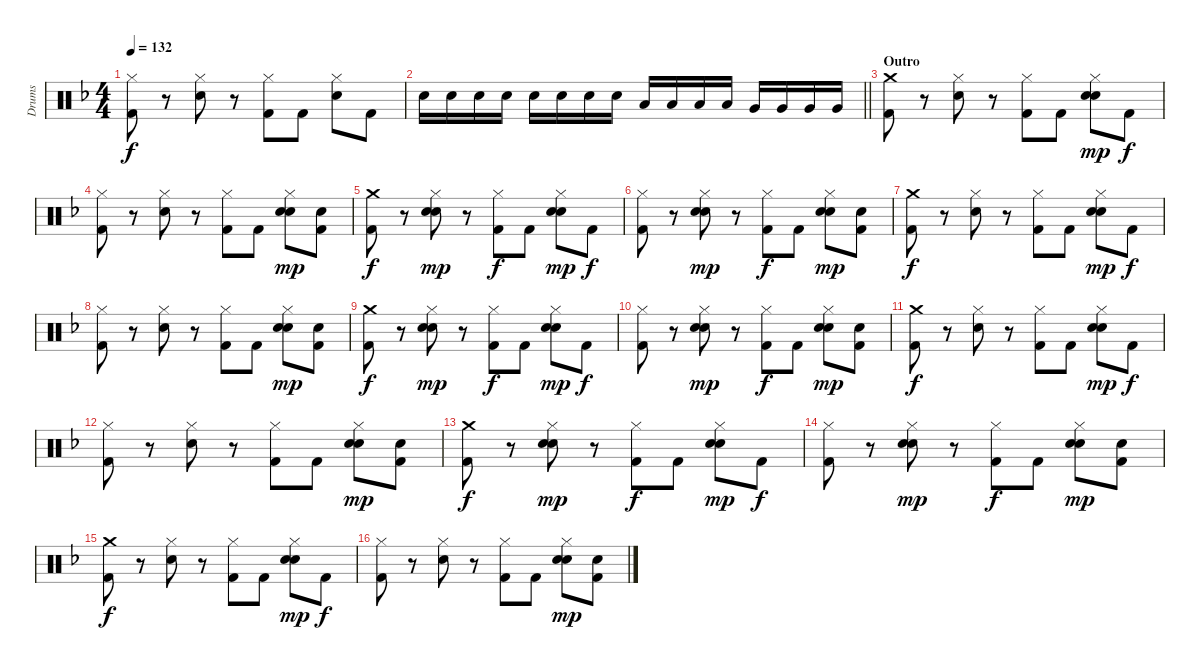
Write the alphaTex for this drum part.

\track ("Drums" "Drums") {instrument percussion}
\staff {score}
\articulation defaults
\ts (4 4)
\tempo 132
\clef neutral
\ks f
("Hi-Hat (closed)" "Kick (hit) 2").8{dy f} r.8 ("Hi-Hat (closed)" "Snare (hit) 2").8 r.8 ("Hi-Hat (closed)" "Kick (hit) 2").8 "Kick (hit) 2".8 ("Hi-Hat (closed)" "Snare (hit) 2").8 "Kick (hit) 2".8 |
\barLineRight lightlight "Snare (hit) 2".16 "Snare (hit) 2".16 "Snare (hit) 2".16 "Snare (hit) 2".16 "Snare (hit) 2".16 "Snare (hit) 2".16 "Snare (hit) 2".16 "Snare (hit) 2".16 "Low Tom (hit)".16 "Low Tom (hit)".16 "Low Tom (hit)".16 "Low Tom (hit)".16 "Very Low Tom (hit)".16 "Very Low Tom (hit)".16 "Very Low Tom (hit)".16 "Very Low Tom (hit)".16
|
\section ("" "Outro")
("Crash medium (hit)" "Kick (hit) 2").8 r.8 ("Hi-Hat (closed)" "Snare (hit) 2").8 r.8 ("Hi-Hat (closed)" "Kick (hit) 2").8 "Kick (hit) 2".8 ("Hi-Hat (closed)" "Hand Clap (hit)" "Snare (hit) 2").8{dy mp} "Kick (hit) 2".8{dy f} |
("Hi-Hat (closed)" "Kick (hit) 2").8 r.8 ("Hi-Hat (closed)" "Snare (hit) 2").8 r.8 ("Hi-Hat (closed)" "Kick (hit) 2").8 "Kick (hit) 2".8 ("Hi-Hat (closed)" "Hand Clap (hit)" "Snare (hit) 2").8{dy mp} ("Hand Clap (hit)" "Kick (hit) 2").8 |
("Crash medium (hit)" "Kick (hit) 2").8{dy f} r.8 ("Hi-Hat (closed)" "Hand Clap (hit)" "Snare (hit) 2").8{dy mp} r.8 ("Hi-Hat (closed)" "Kick (hit) 2").8{dy f} "Kick (hit) 2".8 ("Hi-Hat (closed)" "Hand Clap (hit)" "Snare (hit) 2").8{dy mp} "Kick (hit) 2".8{dy f} |
("Hi-Hat (closed)" "Kick (hit) 2").8 r.8 ("Hi-Hat (closed)" "Hand Clap (hit)" "Snare (hit) 2").8{dy mp} r.8 ("Hi-Hat (closed)" "Kick (hit) 2").8{dy f} "Kick (hit) 2".8 ("Hi-Hat (closed)" "Hand Clap (hit)" "Snare (hit) 2").8{dy mp} ("Hand Clap (hit)" "Kick (hit) 2").8 |
("Crash medium (hit)" "Kick (hit) 2").8{dy f} r.8 ("Hi-Hat (closed)" "Snare (hit) 2").8 r.8 ("Hi-Hat (closed)" "Kick (hit) 2").8 "Kick (hit) 2".8 ("Hi-Hat (closed)" "Hand Clap (hit)" "Snare (hit) 2").8{dy mp} "Kick (hit) 2".8{dy f} |
("Hi-Hat (closed)" "Kick (hit) 2").8 r.8 ("Hi-Hat (closed)" "Snare (hit) 2").8 r.8 ("Hi-Hat (closed)" "Kick (hit) 2").8 "Kick (hit) 2".8 ("Hi-Hat (closed)" "Hand Clap (hit)" "Snare (hit) 2").8{dy mp} ("Hand Clap (hit)" "Kick (hit) 2").8 |
("Crash medium (hit)" "Kick (hit) 2").8{dy f} r.8 ("Hi-Hat (closed)" "Hand Clap (hit)" "Snare (hit) 2").8{dy mp} r.8 ("Hi-Hat (closed)" "Kick (hit) 2").8{dy f} "Kick (hit) 2".8 ("Hi-Hat (closed)" "Hand Clap (hit)" "Snare (hit) 2").8{dy mp} "Kick (hit) 2".8{dy f} |
("Hi-Hat (closed)" "Kick (hit) 2").8 r.8 ("Hi-Hat (closed)" "Hand Clap (hit)" "Snare (hit) 2").8{dy mp} r.8 ("Hi-Hat (closed)" "Kick (hit) 2").8{dy f} "Kick (hit) 2".8 ("Hi-Hat (closed)" "Hand Clap (hit)" "Snare (hit) 2").8{dy mp} ("Hand Clap (hit)" "Kick (hit) 2").8 |
("Crash medium (hit)" "Kick (hit) 2").8{dy f} r.8 ("Hi-Hat (closed)" "Snare (hit) 2").8 r.8 ("Hi-Hat (closed)" "Kick (hit) 2").8 "Kick (hit) 2".8 ("Hi-Hat (closed)" "Hand Clap (hit)" "Snare (hit) 2").8{dy mp} "Kick (hit) 2".8{dy f} |
("Hi-Hat (closed)" "Kick (hit) 2").8 r.8 ("Hi-Hat (closed)" "Snare (hit) 2").8 r.8 ("Hi-Hat (closed)" "Kick (hit) 2").8 "Kick (hit) 2".8 ("Hi-Hat (closed)" "Hand Clap (hit)" "Snare (hit) 2").8{dy mp} ("Hand Clap (hit)" "Kick (hit) 2").8 |
("Crash medium (hit)" "Kick (hit) 2").8{dy f} r.8 ("Hi-Hat (closed)" "Hand Clap (hit)" "Snare (hit) 2").8{dy mp} r.8 ("Hi-Hat (closed)" "Kick (hit) 2").8{dy f} "Kick (hit) 2".8 ("Hi-Hat (closed)" "Hand Clap (hit)" "Snare (hit) 2").8{dy mp} "Kick (hit) 2".8{dy f} |
("Hi-Hat (closed)" "Kick (hit) 2").8 r.8 ("Hi-Hat (closed)" "Hand Clap (hit)" "Snare (hit) 2").8{dy mp} r.8 ("Hi-Hat (closed)" "Kick (hit) 2").8{dy f} "Kick (hit) 2".8 ("Hi-Hat (closed)" "Hand Clap (hit)" "Snare (hit) 2").8{dy mp} ("Hand Clap (hit)" "Kick (hit) 2").8 |
("Crash medium (hit)" "Kick (hit) 2").8{dy f} r.8 ("Hi-Hat (closed)" "Snare (hit) 2").8 r.8 ("Hi-Hat (closed)" "Kick (hit) 2").8 "Kick (hit) 2".8 ("Hi-Hat (closed)" "Hand Clap (hit)" "Snare (hit) 2").8{dy mp} "Kick (hit) 2".8{dy f} |
("Hi-Hat (closed)" "Kick (hit) 2").8 r.8 ("Hi-Hat (closed)" "Snare (hit) 2").8 r.8 ("Hi-Hat (closed)" "Kick (hit) 2").8 "Kick (hit) 2".8 ("Hi-Hat (closed)" "Hand Clap (hit)" "Snare (hit) 2").8{dy mp} ("Hand Clap (hit)" "Kick (hit) 2").8
